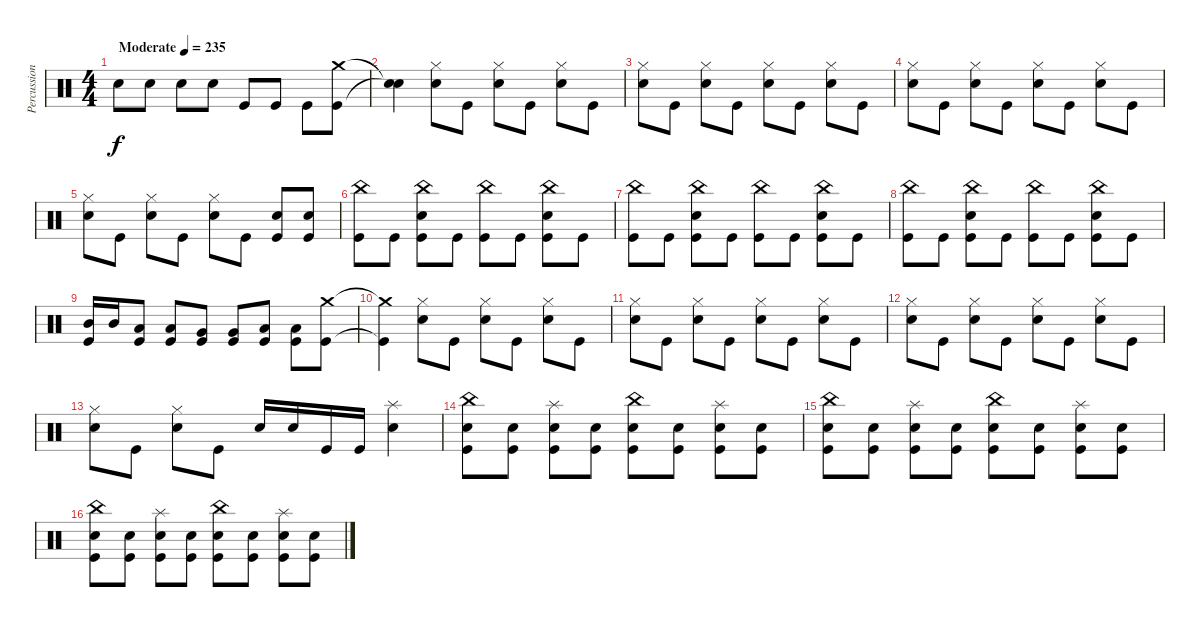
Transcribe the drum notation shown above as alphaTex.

\track ("Percussion" "Percussion") {instrument percussion}
\staff {score}
\articulation defaults
\ts (4 4)
\tempo (235 "Moderate")
\clef neutral
\ks c "Snare (hit) 2".8{dy f} "Snare (hit) 2".8 "Snare (hit) 2".8 "Snare (hit) 2".8 "Kick (hit)".8 "Kick (hit)".8 "Kick (hit)".8
("Kick (hit)" "Crash medium (hit)").8 |
("Snare (hit)"{t} "Snare (hit)"{t}).4 ("Snare (hit) 2" "Hi-Hat (closed)").8 "Kick (hit)".8 ("Snare (hit) 2" "Hi-Hat (closed)").8 "Kick (hit)".8 ("Snare (hit) 2" "Hi-Hat (closed)").8 "Kick (hit)".8 |
("Snare (hit) 2" "Hi-Hat (closed)").8 "Kick (hit)".8 ("Snare (hit) 2" "Hi-Hat (closed)").8 "Kick (hit)".8 ("Snare (hit) 2" "Hi-Hat (closed)").8 "Kick (hit)".8 ("Snare (hit) 2" "Hi-Hat (closed)").8 "Kick (hit)".8 |
("Snare (hit) 2" "Hi-Hat (closed)").8 "Kick (hit)".8 ("Snare (hit) 2" "Hi-Hat (closed)").8 "Kick (hit)".8 ("Snare (hit) 2" "Hi-Hat (closed)").8 "Kick (hit)".8 ("Snare (hit) 2" "Hi-Hat (closed)").8 "Kick (hit)".8 |
("Snare (hit) 2" "Hi-Hat (closed)").8 "Kick (hit)".8 ("Snare (hit) 2" "Hi-Hat (closed)").8 "Kick (hit)".8 ("Snare (hit) 2" "Hi-Hat (closed)").8 "Kick (hit)".8 ("Kick (hit)" "Snare (hit) 2").8 ("Kick (hit)" "Snare (hit) 2").8 |
("Kick (hit)" "China (hit)").8 "Kick (hit)".8 ("Kick (hit)" "Snare (hit) 2" "China (hit)").8 "Kick (hit)".8 ("Kick (hit)" "China (hit)").8 "Kick (hit)".8 ("Kick (hit)" "Snare (hit) 2" "China (hit)").8 "Kick (hit)".8 |
("Kick (hit)" "China (hit)").8 "Kick (hit)".8 ("Kick (hit)" "Snare (hit) 2" "China (hit)").8 "Kick (hit)".8 ("Kick (hit)" "China (hit)").8 "Kick (hit)".8 ("Kick (hit)" "Snare (hit) 2" "China (hit)").8 "Kick (hit)".8 |
("Kick (hit)" "China (hit)").8 "Kick (hit)".8 ("Kick (hit)" "Snare (hit) 2" "China (hit)").8 "Kick (hit)".8 ("Kick (hit)" "China (hit)").8 "Kick (hit)".8 ("Kick (hit)" "Snare (hit) 2" "China (hit)").8 "Kick (hit)".8 |
("Mid Tom (hit)" "Kick (hit)").16 "Mid Tom (hit)".16 ("Low Tom (hit)" "Kick (hit)").8 ("Low Tom (hit)" "Kick (hit)").8 ("Very Low Tom (hit)" "Kick (hit)").8 ("Very Low Tom (hit)" "Kick (hit)").8 ("Low Floor Tom (hit)" "Kick (hit)").8 ("Low Floor Tom (hit)" "Kick (hit)").8 ("Crash medium (hit)" "Kick (hit)").8 |
("Crash medium (hit)"{t} "Kick (hit)"{t}).4 ("Snare (hit) 2" "Hi-Hat (closed)").8 "Kick (hit)".8 ("Snare (hit) 2" "Hi-Hat (closed)").8 "Kick (hit)".8 ("Snare (hit) 2" "Hi-Hat (closed)").8 "Kick (hit)".8 |
("Snare (hit) 2" "Hi-Hat (closed)").8 "Kick (hit)".8 ("Snare (hit) 2" "Hi-Hat (closed)").8 "Kick (hit)".8 ("Snare (hit) 2" "Hi-Hat (closed)").8 "Kick (hit)".8 ("Snare (hit) 2" "Hi-Hat (closed)").8 "Kick (hit)".8 |
("Snare (hit) 2" "Hi-Hat (closed)").8 "Kick (hit)".8 ("Snare (hit) 2" "Hi-Hat (closed)").8 "Kick (hit)".8 ("Snare (hit) 2" "Hi-Hat (closed)").8 "Kick (hit)".8 ("Snare (hit) 2" "Hi-Hat (closed)").8 "Kick (hit)".8 |
("Snare (hit) 2" "Hi-Hat (closed)").8 "Kick (hit)".8 ("Snare (hit) 2" "Hi-Hat (closed)").8 "Kick (hit)".8 "Snare (hit) 2".16 "Snare (hit) 2".16 "Kick (hit)".16 "Kick (hit)".16 ("Snare (hit) 2" "Splash (hit)").4 |
("Kick (hit)" "Snare (hit) 2" "China (hit)").8 ("Kick (hit)" "Snare (hit) 2").8 ("Kick (hit)" "Snare (hit) 2" "Splash (hit)").8 ("Kick (hit)" "Snare (hit) 2").8 ("Kick (hit)" "Snare (hit) 2" "China (hit)").8 ("Kick (hit)" "Snare (hit) 2").8 ("Kick (hit)" "Snare (hit) 2" "Splash (hit)").8 ("Kick (hit)" "Snare (hit) 2").8 |
("Kick (hit)" "Snare (hit) 2" "China (hit)").8 ("Kick (hit)" "Snare (hit) 2").8 ("Kick (hit)" "Snare (hit) 2" "Splash (hit)").8 ("Kick (hit)" "Snare (hit) 2").8 ("Kick (hit)" "Snare (hit) 2" "China (hit)").8 ("Kick (hit)" "Snare (hit) 2").8 ("Kick (hit)" "Snare (hit) 2" "Splash (hit)").8 ("Kick (hit)" "Snare (hit) 2").8 |
("Kick (hit)" "Snare (hit) 2" "China (hit)").8 ("Kick (hit)" "Snare (hit) 2").8 ("Kick (hit)" "Snare (hit) 2" "Splash (hit)").8 ("Kick (hit)" "Snare (hit) 2").8 ("Kick (hit)" "Snare (hit) 2" "China (hit)").8 ("Kick (hit)" "Snare (hit) 2").8 ("Kick (hit)" "Snare (hit) 2" "Splash (hit)").8 ("Kick (hit)" "Snare (hit) 2").8
